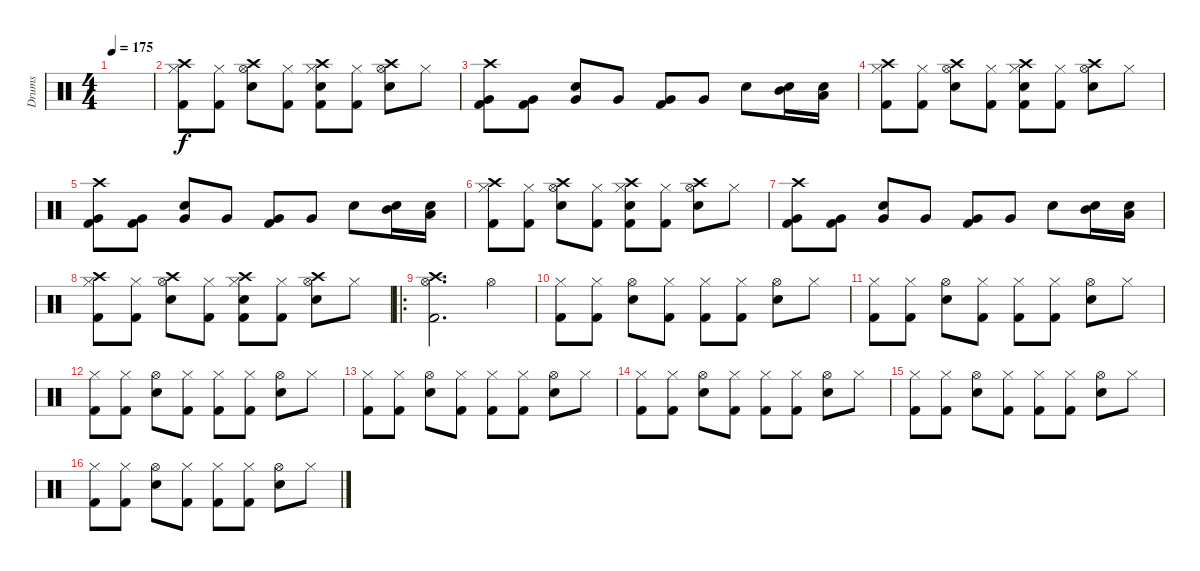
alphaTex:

\track ("Drums" "Drums") {instrument percussion}
\staff {score}
\articulation defaults
\ts (4 4)
\tempo 175
\clef neutral
\ks c
|
("Crash high (hit)" "Hi-Hat (closed)" "Kick (hit) 2").8 ("Hi-Hat (closed)" "Kick (hit) 2").8 ("Crash high (hit)" "Hi-Hat (open)" "Snare (hit) 2").8 ("Hi-Hat (closed)" "Kick (hit) 2").8 ("Crash high (hit)" "Hi-Hat (closed)" "Snare (hit) 2" "Kick (hit) 2").8 ("Hi-Hat (closed)" "Kick (hit) 2").8 ("Crash high (hit)" "Hi-Hat (open)" "Snare (hit) 2").8 "Hi-Hat (closed)".8 |
("Very Low Tom (hit)" "Crash high (hit)" "Kick (hit) 2").8 ("Very Low Tom (hit)" "Kick (hit) 2").8 ("Very Low Tom (hit)" "Snare (hit) 2").8 "Very Low Tom (hit)".8 ("Very Low Tom (hit)" "Kick (hit) 2").8 "Very Low Tom (hit)".8 "Snare (hit) 2".8 ("Mid Tom (hit)" "Snare (hit) 2").16 ("Low Tom (hit)" "Snare (hit) 2").16 |
("Crash high (hit)" "Hi-Hat (closed)" "Kick (hit) 2").8 ("Hi-Hat (closed)" "Kick (hit) 2").8 ("Crash high (hit)" "Hi-Hat (open)" "Snare (hit) 2").8 ("Hi-Hat (closed)" "Kick (hit) 2").8 ("Crash high (hit)" "Hi-Hat (closed)" "Snare (hit) 2" "Kick (hit) 2").8 ("Hi-Hat (closed)" "Kick (hit) 2").8 ("Crash high (hit)" "Hi-Hat (open)" "Snare (hit) 2").8 "Hi-Hat (closed)".8 |
("Very Low Tom (hit)" "Crash high (hit)" "Kick (hit) 2").8 ("Very Low Tom (hit)" "Kick (hit) 2").8 ("Very Low Tom (hit)" "Snare (hit) 2").8 "Very Low Tom (hit)".8 ("Very Low Tom (hit)" "Kick (hit) 2").8 "Very Low Tom (hit)".8 "Snare (hit) 2".8 ("Mid Tom (hit)" "Snare (hit) 2").16 ("Low Tom (hit)" "Snare (hit) 2").16 |
("Crash high (hit)" "Hi-Hat (closed)" "Kick (hit) 2").8 ("Hi-Hat (closed)" "Kick (hit) 2").8 ("Crash high (hit)" "Hi-Hat (open)" "Snare (hit) 2").8 ("Hi-Hat (closed)" "Kick (hit) 2").8 ("Crash high (hit)" "Hi-Hat (closed)" "Snare (hit) 2" "Kick (hit) 2").8 ("Hi-Hat (closed)" "Kick (hit) 2").8 ("Crash high (hit)" "Hi-Hat (open)" "Snare (hit) 2").8 "Hi-Hat (closed)".8 |
("Very Low Tom (hit)" "Crash high (hit)" "Kick (hit) 2").8 ("Very Low Tom (hit)" "Kick (hit) 2").8 ("Very Low Tom (hit)" "Snare (hit) 2").8 "Very Low Tom (hit)".8 ("Very Low Tom (hit)" "Kick (hit) 2").8 "Very Low Tom (hit)".8 "Snare (hit) 2".8 ("Mid Tom (hit)" "Snare (hit) 2").16 ("Low Tom (hit)" "Snare (hit) 2").16 |
("Crash high (hit)" "Hi-Hat (closed)" "Kick (hit) 2").8 ("Hi-Hat (closed)" "Kick (hit) 2").8 ("Crash high (hit)" "Hi-Hat (open)" "Snare (hit) 2").8 ("Hi-Hat (closed)" "Kick (hit) 2").8 ("Crash high (hit)" "Hi-Hat (closed)" "Snare (hit) 2" "Kick (hit) 2").8 ("Hi-Hat (closed)" "Kick (hit) 2").8 ("Crash high (hit)" "Hi-Hat (open)" "Snare (hit) 2").8 "Hi-Hat (closed)".8 |
\ro
("Crash high (hit)" "Hi-Hat (open)" "Kick (hit) 2").2{d} "Hi-Hat (open)".4 |
("Hi-Hat (closed)" "Kick (hit) 2").8 ("Hi-Hat (closed)" "Kick (hit) 2").8 ("Hi-Hat (open)" "Snare (hit) 2").8 ("Hi-Hat (closed)" "Kick (hit) 2").8 ("Hi-Hat (closed)" "Kick (hit) 2").8 ("Hi-Hat (closed)" "Kick (hit) 2").8 ("Hi-Hat (open)" "Snare (hit) 2").8 "Hi-Hat (closed)".8 |
("Hi-Hat (closed)" "Kick (hit) 2").8 ("Hi-Hat (closed)" "Kick (hit) 2").8 ("Hi-Hat (open)" "Snare (hit) 2").8 ("Hi-Hat (closed)" "Kick (hit) 2").8 ("Hi-Hat (closed)" "Kick (hit) 2").8 ("Hi-Hat (closed)" "Kick (hit) 2").8 ("Hi-Hat (open)" "Snare (hit) 2").8 "Hi-Hat (closed)".8 |
("Hi-Hat (closed)" "Kick (hit) 2").8 ("Hi-Hat (closed)" "Kick (hit) 2").8 ("Hi-Hat (open)" "Snare (hit) 2").8 ("Hi-Hat (closed)" "Kick (hit) 2").8 ("Hi-Hat (closed)" "Kick (hit) 2").8 ("Hi-Hat (closed)" "Kick (hit) 2").8 ("Hi-Hat (open)" "Snare (hit) 2").8 "Hi-Hat (closed)".8 |
("Hi-Hat (closed)" "Kick (hit) 2").8 ("Hi-Hat (closed)" "Kick (hit) 2").8 ("Hi-Hat (open)" "Snare (hit) 2").8 ("Hi-Hat (closed)" "Kick (hit) 2").8 ("Hi-Hat (closed)" "Kick (hit) 2").8 ("Hi-Hat (closed)" "Kick (hit) 2").8 ("Hi-Hat (open)" "Snare (hit) 2").8 "Hi-Hat (closed)".8 |
("Hi-Hat (closed)" "Kick (hit) 2").8 ("Hi-Hat (closed)" "Kick (hit) 2").8 ("Hi-Hat (open)" "Snare (hit) 2").8 ("Hi-Hat (closed)" "Kick (hit) 2").8 ("Hi-Hat (closed)" "Kick (hit) 2").8 ("Hi-Hat (closed)" "Kick (hit) 2").8 ("Hi-Hat (open)" "Snare (hit) 2").8 "Hi-Hat (closed)".8 |
("Hi-Hat (closed)" "Kick (hit) 2").8 ("Hi-Hat (closed)" "Kick (hit) 2").8 ("Hi-Hat (open)" "Snare (hit) 2").8 ("Hi-Hat (closed)" "Kick (hit) 2").8 ("Hi-Hat (closed)" "Kick (hit) 2").8 ("Hi-Hat (closed)" "Kick (hit) 2").8 ("Hi-Hat (open)" "Snare (hit) 2").8 "Hi-Hat (closed)".8 |
("Hi-Hat (closed)" "Kick (hit) 2").8 ("Hi-Hat (closed)" "Kick (hit) 2").8 ("Hi-Hat (open)" "Snare (hit) 2").8 ("Hi-Hat (closed)" "Kick (hit) 2").8 ("Hi-Hat (closed)" "Kick (hit) 2").8 ("Hi-Hat (closed)" "Kick (hit) 2").8 ("Hi-Hat (open)" "Snare (hit) 2").8 "Hi-Hat (closed)".8
